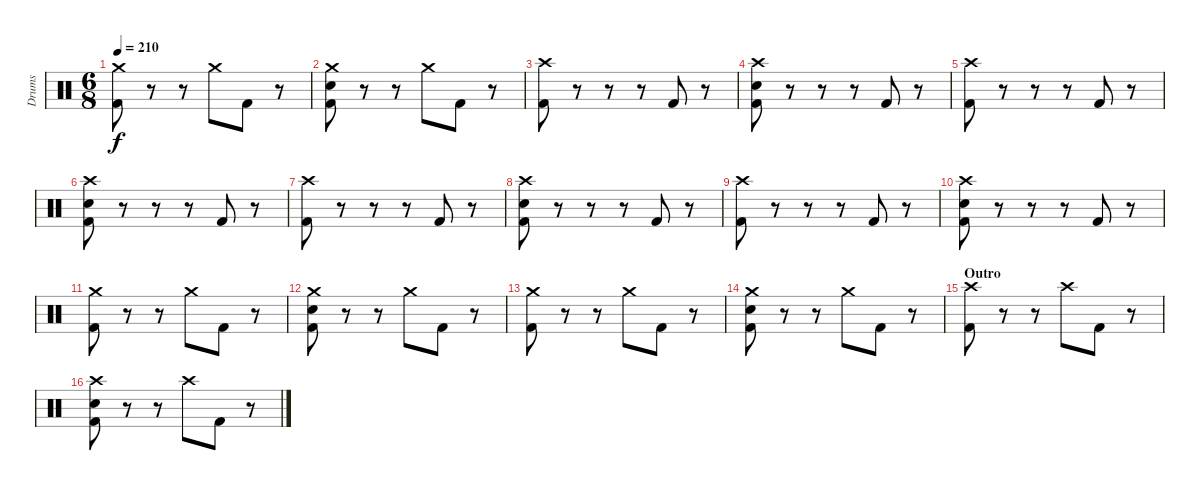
\track ("Drums" "Drums") {instrument percussion}
\staff {score}
\articulation defaults
\ts (6 8)
\tempo 210
\clef neutral
\ks c
("Crash medium (hit)" "Kick (hit) 2").8{dy f} r.8 r.8 "Crash medium (hit)".8 "Kick (hit) 2".8 r.8 |
("Crash medium (hit)" "Snare (hit) 2" "Kick (hit) 2").8 r.8 r.8 "Crash medium (hit)".8 "Kick (hit) 2".8 r.8 |
("Crash high (hit)" "Kick (hit) 2").8 r.8 r.8 r.8 "Kick (hit) 2".8 r.8 |
("Crash high (hit)" "Snare (hit) 2" "Kick (hit) 2").8 r.8 r.8 r.8 "Kick (hit) 2".8 r.8 |
("Crash high (hit)" "Kick (hit) 2").8 r.8 r.8 r.8 "Kick (hit) 2".8 r.8 |
("Crash high (hit)" "Snare (hit) 2" "Kick (hit) 2").8 r.8 r.8 r.8 "Kick (hit) 2".8 r.8 |
("Crash high (hit)" "Kick (hit) 2").8 r.8 r.8 r.8 "Kick (hit) 2".8 r.8 |
("Crash high (hit)" "Snare (hit) 2" "Kick (hit) 2").8 r.8 r.8 r.8 "Kick (hit) 2".8 r.8 |
("Crash high (hit)" "Kick (hit) 2").8 r.8 r.8 r.8 "Kick (hit) 2".8 r.8 |
("Crash high (hit)" "Snare (hit) 2" "Kick (hit) 2").8 r.8 r.8 r.8 "Kick (hit) 2".8 r.8 |
("Crash medium (hit)" "Kick (hit) 2").8 r.8 r.8 "Crash medium (hit)".8 "Kick (hit) 2".8 r.8 |
("Crash medium (hit)" "Snare (hit) 2" "Kick (hit) 2").8 r.8 r.8 "Crash medium (hit)".8 "Kick (hit) 2".8 r.8 |
("Crash medium (hit)" "Kick (hit) 2").8 r.8 r.8 "Crash medium (hit)".8 "Kick (hit) 2".8 r.8 |
("Crash medium (hit)" "Snare (hit) 2" "Kick (hit) 2").8 r.8 r.8 "Crash medium (hit)".8 "Kick (hit) 2".8 r.8 |
\section ("" "Outro")
("Crash high (hit)" "Kick (hit) 2").8 r.8 r.8 "Crash high (hit)".8 "Kick (hit) 2".8 r.8 |
("Crash high (hit)" "Snare (hit) 2" "Kick (hit) 2").8 r.8 r.8 "Crash high (hit)".8 "Kick (hit) 2".8 r.8
